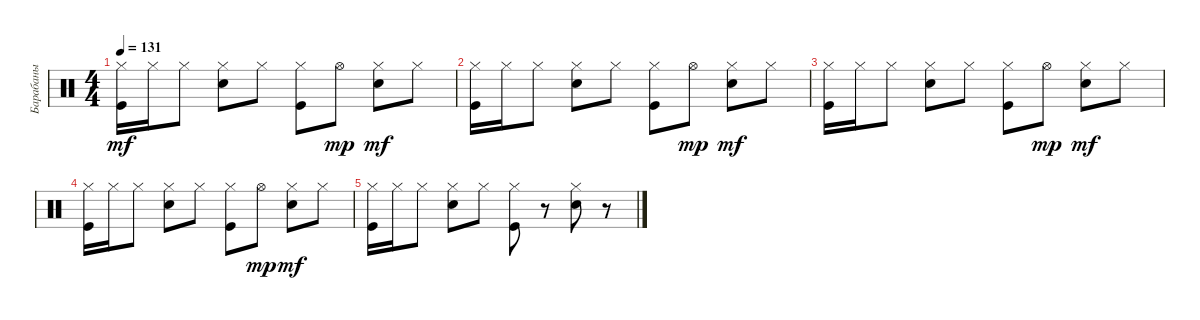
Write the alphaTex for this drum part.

\track ("Барабаны" "Барабаны") {instrument percussion}
\staff {score}
\articulation defaults
\ts (4 4)
\tempo 131
\clef neutral
\ks c
("Kick (hit)" "Hi-Hat (closed)").16{dy mf} "Hi-Hat (closed)".16 "Hi-Hat (closed)".8 ("Snare (hit) 2" "Hi-Hat (closed)").8 "Hi-Hat (closed)".8 ("Kick (hit)" "Hi-Hat (closed)").8 "Hi-Hat (open)".8{dy mp} ("Snare (hit) 2" "Hi-Hat (closed)").8{dy mf} "Hi-Hat (closed)".8 |
("Kick (hit)" "Hi-Hat (closed)").16 "Hi-Hat (closed)".16 "Hi-Hat (closed)".8 ("Snare (hit) 2" "Hi-Hat (closed)").8 "Hi-Hat (closed)".8 ("Kick (hit)" "Hi-Hat (closed)").8 "Hi-Hat (open)".8{dy mp} ("Snare (hit) 2" "Hi-Hat (closed)").8{dy mf} "Hi-Hat (closed)".8 |
("Kick (hit)" "Hi-Hat (closed)").16 "Hi-Hat (closed)".16 "Hi-Hat (closed)".8 ("Snare (hit) 2" "Hi-Hat (closed)").8 "Hi-Hat (closed)".8 ("Kick (hit)" "Hi-Hat (closed)").8 "Hi-Hat (open)".8{dy mp} ("Snare (hit) 2" "Hi-Hat (closed)").8{dy mf} "Hi-Hat (closed)".8 |
("Kick (hit)" "Hi-Hat (closed)").16 "Hi-Hat (closed)".16 "Hi-Hat (closed)".8 ("Snare (hit) 2" "Hi-Hat (closed)").8 "Hi-Hat (closed)".8 ("Kick (hit)" "Hi-Hat (closed)").8 "Hi-Hat (open)".8{dy mp} ("Snare (hit) 2" "Hi-Hat (closed)").8{dy mf} "Hi-Hat (closed)".8 |
("Kick (hit)" "Hi-Hat (closed)").16 "Hi-Hat (closed)".16 "Hi-Hat (closed)".8 ("Snare (hit) 2" "Hi-Hat (closed)").8 "Hi-Hat (closed)".8 ("Kick (hit)" "Hi-Hat (closed)").8 r.8 ("Snare (hit) 2" "Hi-Hat (closed)").8 r.8
